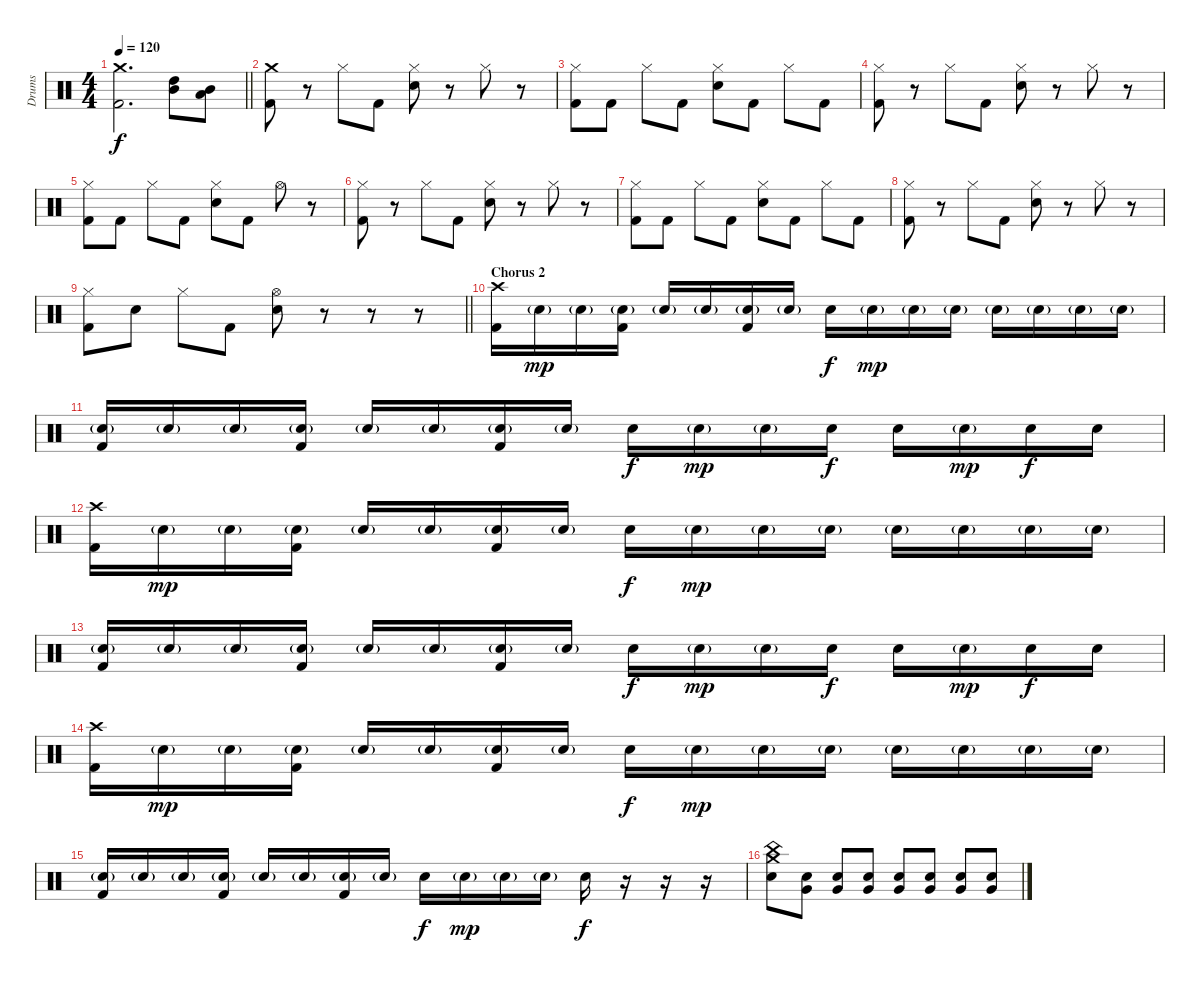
\track ("Drums" "Drums") {instrument percussion}
\staff {score}
\articulation defaults
\ts (4 4)
\tempo 120
\clef neutral
\barLineRight lightlight
\ks c
("Crash medium (hit)" "Kick (hit) 2").2{d dy f} ("High Tom (hit)" "Mid Tom (hit)").8 ("Mid Tom (hit)" "Low Tom (hit)").8 |
\section ("" "")
("Crash medium (hit)" "Kick (hit) 2").8 r.8 "Hi-Hat (closed)".8 "Kick (hit) 2".8 ("Hi-Hat (closed)" "Electric Snare (hit)").8 r.8 "Hi-Hat (closed)".8 r.8 |
("Hi-Hat (closed)" "Kick (hit) 2").8 "Kick (hit) 2".8 "Hi-Hat (closed)".8 "Kick (hit) 2".8 ("Hi-Hat (closed)" "Electric Snare (hit)").8 "Kick (hit) 2".8 "Hi-Hat (closed)".8 "Kick (hit) 2".8 |
("Hi-Hat (closed)" "Kick (hit) 2").8 r.8 "Hi-Hat (closed)".8 "Kick (hit) 2".8 ("Hi-Hat (closed)" "Electric Snare (hit)").8 r.8 "Hi-Hat (closed)".8 r.8 |
("Hi-Hat (closed)" "Kick (hit) 2").8 "Kick (hit) 2".8 "Hi-Hat (closed)".8 "Kick (hit) 2".8 ("Hi-Hat (closed)" "Electric Snare (hit)").8 "Kick (hit) 2".8 "Hi-Hat (open)".8 r.8 |
("Hi-Hat (closed)" "Kick (hit) 2").8 r.8 "Hi-Hat (closed)".8 "Kick (hit) 2".8 ("Hi-Hat (closed)" "Electric Snare (hit)").8 r.8 "Hi-Hat (closed)".8 r.8 |
("Hi-Hat (closed)" "Kick (hit) 2").8 "Kick (hit) 2".8 "Hi-Hat (closed)".8 "Kick (hit) 2".8 ("Hi-Hat (closed)" "Electric Snare (hit)").8 "Kick (hit) 2".8 "Hi-Hat (closed)".8 "Kick (hit) 2".8 |
("Hi-Hat (closed)" "Kick (hit) 2").8 r.8 "Hi-Hat (closed)".8 "Kick (hit) 2".8 ("Hi-Hat (closed)" "Electric Snare (hit)").8 r.8 "Hi-Hat (closed)".8 r.8 |
\barLineRight lightlight
("Hi-Hat (closed)" "Kick (hit) 2").8 "Electric Snare (hit)".8 "Hi-Hat (closed)".8 "Kick (hit) 2".8 ("Hi-Hat (open)" "Electric Snare (hit)").8 r.8 r.8 r.8 |
\section ("" "Chorus 2")
("Crash high (hit)" "Kick (hit) 2").16 "Electric Snare (hit)"{g}.16{dy mp} "Electric Snare (hit)"{g}.16 ("Electric Snare (hit)"{g} "Kick (hit) 2").16 "Electric Snare (hit)"{g}.16 "Electric Snare (hit)"{g}.16 ("Electric Snare (hit)"{g} "Kick (hit) 2").16 "Electric Snare (hit)"{g}.16 "Electric Snare (hit)".16{dy f} "Electric Snare (hit)"{g}.16{dy mp} "Electric Snare (hit)"{g}.16 "Electric Snare (hit)"{g}.16 "Electric Snare (hit)"{g}.16 "Electric Snare (hit)"{g}.16 "Electric Snare (hit)"{g}.16 "Electric Snare (hit)"{g}.16 |
("Electric Snare (hit)"{g} "Kick (hit) 2").16 "Electric Snare (hit)"{g}.16 "Electric Snare (hit)"{g}.16 ("Electric Snare (hit)"{g} "Kick (hit) 2").16 "Electric Snare (hit)"{g}.16 "Electric Snare (hit)"{g}.16 ("Electric Snare (hit)"{g} "Kick (hit) 2").16 "Electric Snare (hit)"{g}.16 "Electric Snare (hit)".16{dy f} "Electric Snare (hit)"{g}.16{dy mp} "Electric Snare (hit)"{g}.16 "Electric Snare (hit)".16{dy f} "Electric Snare (hit)".16 "Electric Snare (hit)"{g}.16{dy mp} "Electric Snare (hit)".16{dy f} "Electric Snare (hit)".16 |
("Crash high (hit)" "Kick (hit) 2").16 "Electric Snare (hit)"{g}.16{dy mp} "Electric Snare (hit)"{g}.16 ("Electric Snare (hit)"{g} "Kick (hit) 2").16 "Electric Snare (hit)"{g}.16 "Electric Snare (hit)"{g}.16 ("Electric Snare (hit)"{g} "Kick (hit) 2").16 "Electric Snare (hit)"{g}.16 "Electric Snare (hit)".16{dy f} "Electric Snare (hit)"{g}.16{dy mp} "Electric Snare (hit)"{g}.16 "Electric Snare (hit)"{g}.16 "Electric Snare (hit)"{g}.16 "Electric Snare (hit)"{g}.16 "Electric Snare (hit)"{g}.16 "Electric Snare (hit)"{g}.16 |
("Electric Snare (hit)"{g} "Kick (hit) 2").16 "Electric Snare (hit)"{g}.16 "Electric Snare (hit)"{g}.16 ("Electric Snare (hit)"{g} "Kick (hit) 2").16 "Electric Snare (hit)"{g}.16 "Electric Snare (hit)"{g}.16 ("Electric Snare (hit)"{g} "Kick (hit) 2").16 "Electric Snare (hit)"{g}.16 "Electric Snare (hit)".16{dy f} "Electric Snare (hit)"{g}.16{dy mp} "Electric Snare (hit)"{g}.16 "Electric Snare (hit)".16{dy f} "Electric Snare (hit)".16 "Electric Snare (hit)"{g}.16{dy mp} "Electric Snare (hit)".16{dy f} "Electric Snare (hit)".16 |
("Crash high (hit)" "Kick (hit) 2").16 "Electric Snare (hit)"{g}.16{dy mp} "Electric Snare (hit)"{g}.16 ("Electric Snare (hit)"{g} "Kick (hit) 2").16 "Electric Snare (hit)"{g}.16 "Electric Snare (hit)"{g}.16 ("Electric Snare (hit)"{g} "Kick (hit) 2").16 "Electric Snare (hit)"{g}.16 "Electric Snare (hit)".16{dy f} "Electric Snare (hit)"{g}.16{dy mp} "Electric Snare (hit)"{g}.16 "Electric Snare (hit)"{g}.16 "Electric Snare (hit)"{g}.16 "Electric Snare (hit)"{g}.16 "Electric Snare (hit)"{g}.16 "Electric Snare (hit)"{g}.16 |
("Electric Snare (hit)"{g} "Kick (hit) 2").16 "Electric Snare (hit)"{g}.16 "Electric Snare (hit)"{g}.16 ("Electric Snare (hit)"{g} "Kick (hit) 2").16 "Electric Snare (hit)"{g}.16 "Electric Snare (hit)"{g}.16 ("Electric Snare (hit)"{g} "Kick (hit) 2").16 "Electric Snare (hit)"{g}.16 "Electric Snare (hit)".16{dy f} "Electric Snare (hit)"{g}.16{dy mp} "Electric Snare (hit)"{g}.16 "Electric Snare (hit)"{g}.16 "Electric Snare (hit)".16{dy f} r.16 r.16 r.16 |
("China (hit)" "Crash medium (hit)" "Electric Snare (hit)").8 ("Electric Snare (hit)" "Very Low Tom (hit)").8{volume 8} ("Electric Snare (hit)" "Very Low Tom (hit)").8 ("Electric Snare (hit)" "Very Low Tom (hit)").8{volume 10} ("Electric Snare (hit)" "Very Low Tom (hit)").8 ("Electric Snare (hit)" "Very Low Tom (hit)").8{volume 12} ("Electric Snare (hit)" "Very Low Tom (hit)").8 ("Electric Snare (hit)" "Very Low Tom (hit)").8{volume 14}
